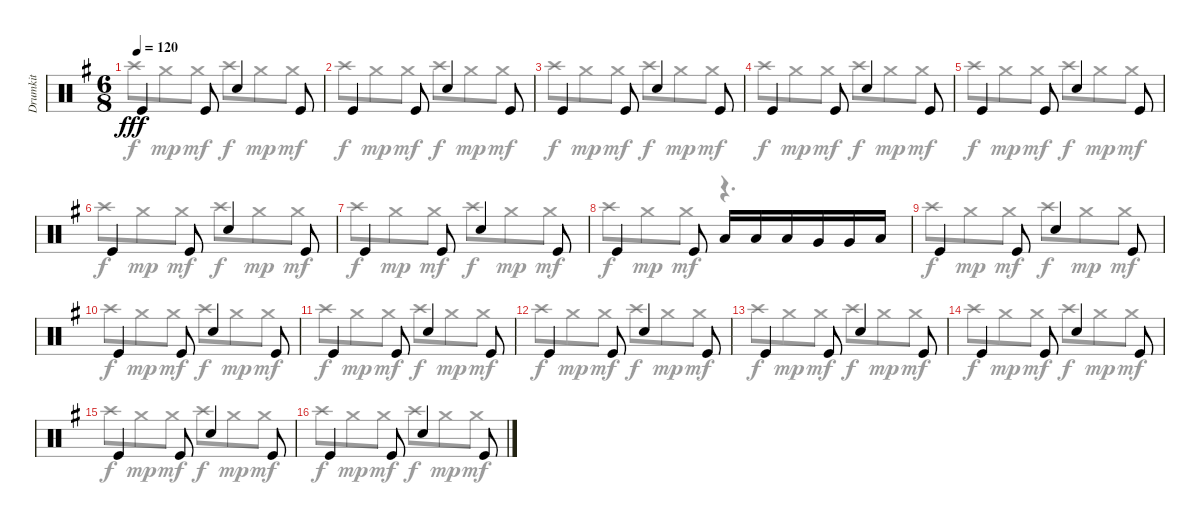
\track ("Drumkit" "Drumkit") {instrument percussion}
\staff {score}
\articulation defaults
\voice
\ts (6 8)
\tempo 120
\clef neutral
\ks eminor "Kick (hit)".4{dy fff} "Kick (hit)".8 "Snare (hit) 2".4 "Kick (hit)".8
|
"Kick (hit)".4 "Kick (hit)".8 "Snare (hit) 2".4 "Kick (hit)".8 |
"Kick (hit)".4 "Kick (hit)".8 "Snare (hit) 2".4 "Kick (hit)".8 |
"Kick (hit)".4 "Kick (hit)".8 "Snare (hit) 2".4 "Kick (hit)".8 |
"Kick (hit)".4 "Kick (hit)".8 "Snare (hit) 2".4 "Kick (hit)".8 |
"Kick (hit)".4 "Kick (hit)".8 "Snare (hit) 2".4 "Kick (hit)".8 |
"Kick (hit)".4 "Kick (hit)".8 "Snare (hit) 2".4 "Kick (hit)".8 |
"Kick (hit)".4 "Kick (hit)".8 "Low Tom (hit)".16 "Low Tom (hit)".16 "Low Tom (hit)".16 "Very Low Tom (hit)".16 "Very Low Tom (hit)".16 "Low Floor Tom (hit)".16 |
"Kick (hit)".4 "Kick (hit)".8 "Snare (hit) 2".4 "Kick (hit)".8 |
"Kick (hit)".4 "Kick (hit)".8 "Snare (hit) 2".4 "Kick (hit)".8 |
"Kick (hit)".4 "Kick (hit)".8 "Snare (hit) 2".4 "Kick (hit)".8 |
"Kick (hit)".4 "Kick (hit)".8 "Snare (hit) 2".4 "Kick (hit)".8 |
"Kick (hit)".4 "Kick (hit)".8 "Snare (hit) 2".4 "Kick (hit)".8 |
"Kick (hit)".4 "Kick (hit)".8 "Snare (hit) 2".4 "Kick (hit)".8 |
"Kick (hit)".4 "Kick (hit)".8 "Snare (hit) 2".4 "Kick (hit)".8 |
"Kick (hit)".4 "Kick (hit)".8 "Snare (hit) 2".4 "Kick (hit)".8
\voice
\clef neutral
\ottava regular
\simile none
\ks eminor "Crash high (hit)".8{dy f} "Crash medium (hit)".8{dy mp} "Crash medium (hit)".8{dy mf} "Crash high (hit)".8{dy f} "Crash medium (hit)".8{dy mp} "Crash medium (hit)".8{dy mf}
|
"Crash high (hit)".8{dy f} "Crash medium (hit)".8{dy mp} "Crash medium (hit)".8{dy mf} "Crash high (hit)".8{dy f} "Crash medium (hit)".8{dy mp} "Crash medium (hit)".8{dy mf} |
"Crash high (hit)".8{dy f} "Crash medium (hit)".8{dy mp} "Crash medium (hit)".8{dy mf} "Crash high (hit)".8{dy f} "Crash medium (hit)".8{dy mp} "Crash medium (hit)".8{dy mf} |
"Crash high (hit)".8{dy f} "Crash medium (hit)".8{dy mp} "Crash medium (hit)".8{dy mf} "Crash high (hit)".8{dy f} "Crash medium (hit)".8{dy mp} "Crash medium (hit)".8{dy mf} |
"Crash high (hit)".8{dy f} "Crash medium (hit)".8{dy mp} "Crash medium (hit)".8{dy mf} "Crash high (hit)".8{dy f} "Crash medium (hit)".8{dy mp} "Crash medium (hit)".8{dy mf} |
"Crash high (hit)".8{dy f} "Crash medium (hit)".8{dy mp} "Crash medium (hit)".8{dy mf} "Crash high (hit)".8{dy f} "Crash medium (hit)".8{dy mp} "Crash medium (hit)".8{dy mf} |
"Crash high (hit)".8{dy f} "Crash medium (hit)".8{dy mp} "Crash medium (hit)".8{dy mf} "Crash high (hit)".8{dy f} "Crash medium (hit)".8{dy mp} "Crash medium (hit)".8{dy mf} |
"Crash high (hit)".8{dy f} "Crash medium (hit)".8{dy mp} "Crash medium (hit)".8{dy mf} r.4{d} |
"Crash high (hit)".8{dy f} "Crash medium (hit)".8{dy mp} "Crash medium (hit)".8{dy mf} "Crash high (hit)".8{dy f} "Crash medium (hit)".8{dy mp} "Crash medium (hit)".8{dy mf} |
"Crash high (hit)".8{dy f} "Crash medium (hit)".8{dy mp} "Crash medium (hit)".8{dy mf} "Crash high (hit)".8{dy f} "Crash medium (hit)".8{dy mp} "Crash medium (hit)".8{dy mf} |
"Crash high (hit)".8{dy f} "Crash medium (hit)".8{dy mp} "Crash medium (hit)".8{dy mf} "Crash high (hit)".8{dy f} "Crash medium (hit)".8{dy mp} "Crash medium (hit)".8{dy mf} |
"Crash high (hit)".8{dy f} "Crash medium (hit)".8{dy mp} "Crash medium (hit)".8{dy mf} "Crash high (hit)".8{dy f} "Crash medium (hit)".8{dy mp} "Crash medium (hit)".8{dy mf} |
"Crash high (hit)".8{dy f} "Crash medium (hit)".8{dy mp} "Crash medium (hit)".8{dy mf} "Crash high (hit)".8{dy f} "Crash medium (hit)".8{dy mp} "Crash medium (hit)".8{dy mf} |
"Crash high (hit)".8{dy f} "Crash medium (hit)".8{dy mp} "Crash medium (hit)".8{dy mf} "Crash high (hit)".8{dy f} "Crash medium (hit)".8{dy mp} "Crash medium (hit)".8{dy mf} |
"Crash high (hit)".8{dy f} "Crash medium (hit)".8{dy mp} "Crash medium (hit)".8{dy mf} "Crash high (hit)".8{dy f} "Crash medium (hit)".8{dy mp} "Crash medium (hit)".8{dy mf} |
"Crash high (hit)".8{dy f} "Crash medium (hit)".8{dy mp} "Crash medium (hit)".8{dy mf} "Crash high (hit)".8{dy f} "Crash medium (hit)".8{dy mp} "Crash medium (hit)".8{dy mf}
